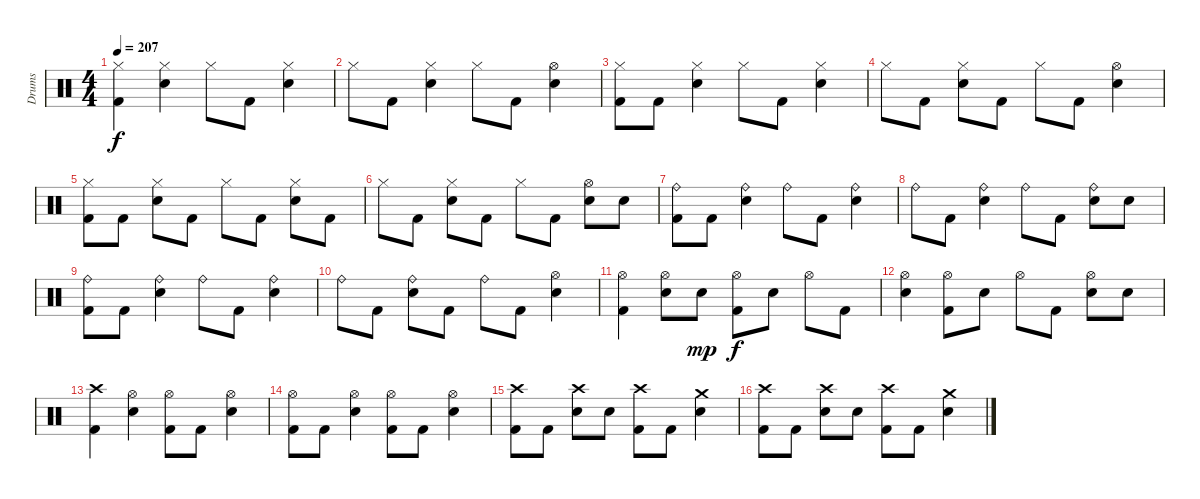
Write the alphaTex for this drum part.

\track ("Drums" "Drums") {instrument percussion}
\staff {score}
\articulation defaults
\ts (4 4)
\tempo 207
\clef neutral
\ks c
("Hi-Hat (closed)" "Kick (hit) 2").4{dy f} ("Hi-Hat (closed)" "Snare (hit) 2").4 "Hi-Hat (closed)".8 "Kick (hit) 2".8 ("Hi-Hat (closed)" "Snare (hit) 2").4 |
"Hi-Hat (closed)".8 "Kick (hit) 2".8 ("Hi-Hat (closed)" "Snare (hit) 2").4 "Hi-Hat (closed)".8 "Kick (hit) 2".8 ("Hi-Hat (open)" "Snare (hit) 2").4 |
("Hi-Hat (closed)" "Kick (hit) 2").8 "Kick (hit) 2".8 ("Hi-Hat (closed)" "Snare (hit) 2").4 "Hi-Hat (closed)".8 "Kick (hit) 2".8 ("Hi-Hat (closed)" "Snare (hit) 2").4 |
"Hi-Hat (closed)".8 "Kick (hit) 2".8 ("Hi-Hat (closed)" "Snare (hit) 2").8 "Kick (hit) 2".8 "Hi-Hat (closed)".8 "Kick (hit) 2".8 ("Hi-Hat (open)" "Snare (hit) 2").4 |
("Hi-Hat (closed)" "Kick (hit) 2").8 "Kick (hit) 2".8 ("Hi-Hat (closed)" "Snare (hit) 2").8 "Kick (hit) 2".8 "Hi-Hat (closed)".8 "Kick (hit) 2".8 ("Hi-Hat (closed)" "Snare (hit) 2").8 "Kick (hit) 2".8 |
"Hi-Hat (closed)".8 "Kick (hit) 2".8 ("Hi-Hat (closed)" "Snare (hit) 2").8 "Kick (hit) 2".8 "Hi-Hat (closed)".8 "Kick (hit) 2".8 ("Hi-Hat (open)" "Snare (hit) 2").8 "Snare (hit) 2".8 |
("Ride (bell)" "Kick (hit) 2").8 "Kick (hit) 2".8 ("Ride (bell)" "Snare (hit) 2").4 "Ride (bell)".8 "Kick (hit) 2".8 ("Ride (bell)" "Snare (hit) 2").4 |
"Ride (bell)".8 "Kick (hit) 2".8 ("Ride (bell)" "Snare (hit) 2").4 "Ride (bell)".8 "Kick (hit) 2".8 ("Ride (bell)" "Snare (hit) 2").8 "Snare (hit) 2".8 |
("Ride (bell)" "Kick (hit) 2").8 "Kick (hit) 2".8 ("Ride (bell)" "Snare (hit) 2").4 "Ride (bell)".8 "Kick (hit) 2".8 ("Ride (bell)" "Snare (hit) 2").4 |
"Ride (bell)".8 "Kick (hit) 2".8 ("Ride (bell)" "Snare (hit) 2").8 "Kick (hit) 2".8 "Ride (bell)".8 "Kick (hit) 2".8 ("Hi-Hat (open)" "Snare (hit) 2").4 |
("Hi-Hat (open)" "Kick (hit) 2").4 ("Hi-Hat (open)" "Snare (hit) 2").8 "Snare (hit) 2".8{dy mp} ("Hi-Hat (open)" "Kick (hit) 2").8{dy f} "Snare (hit) 2".8 "Hi-Hat (open)".8 "Kick (hit) 2".8 |
("Hi-Hat (open)" "Snare (hit) 2").4 ("Hi-Hat (open)" "Kick (hit) 2").8 "Snare (hit) 2".8 "Hi-Hat (open)".8 "Kick (hit) 2".8 ("Hi-Hat (open)" "Snare (hit) 2").8 "Snare (hit) 2".8 |
("Crash high (hit)" "Kick (hit) 2").4 ("Hi-Hat (open)" "Snare (hit) 2").4 ("Hi-Hat (open)" "Kick (hit) 2").8 "Kick (hit) 2".8 ("Hi-Hat (open)" "Snare (hit) 2").4 |
("Hi-Hat (open)" "Kick (hit) 2").8 "Kick (hit) 2".8 ("Hi-Hat (open)" "Snare (hit) 2").4 ("Hi-Hat (open)" "Kick (hit) 2").8 "Kick (hit) 2".8 ("Hi-Hat (open)" "Snare (hit) 2").4 |
("Crash high (hit)" "Kick (hit) 2").8 "Kick (hit) 2".8 ("Crash high (hit)" "Snare (hit) 2").8 "Snare (hit) 2".8 ("Crash high (hit)" "Kick (hit) 2").8 "Kick (hit) 2".8 ("Crash medium (hit)" "Snare (hit) 2").4 |
("Crash high (hit)" "Kick (hit) 2").8 "Kick (hit) 2".8 ("Crash high (hit)" "Snare (hit) 2").8 "Snare (hit) 2".8 ("Crash high (hit)" "Kick (hit) 2").8 "Kick (hit) 2".8 ("Crash medium (hit)" "Snare (hit) 2").4
